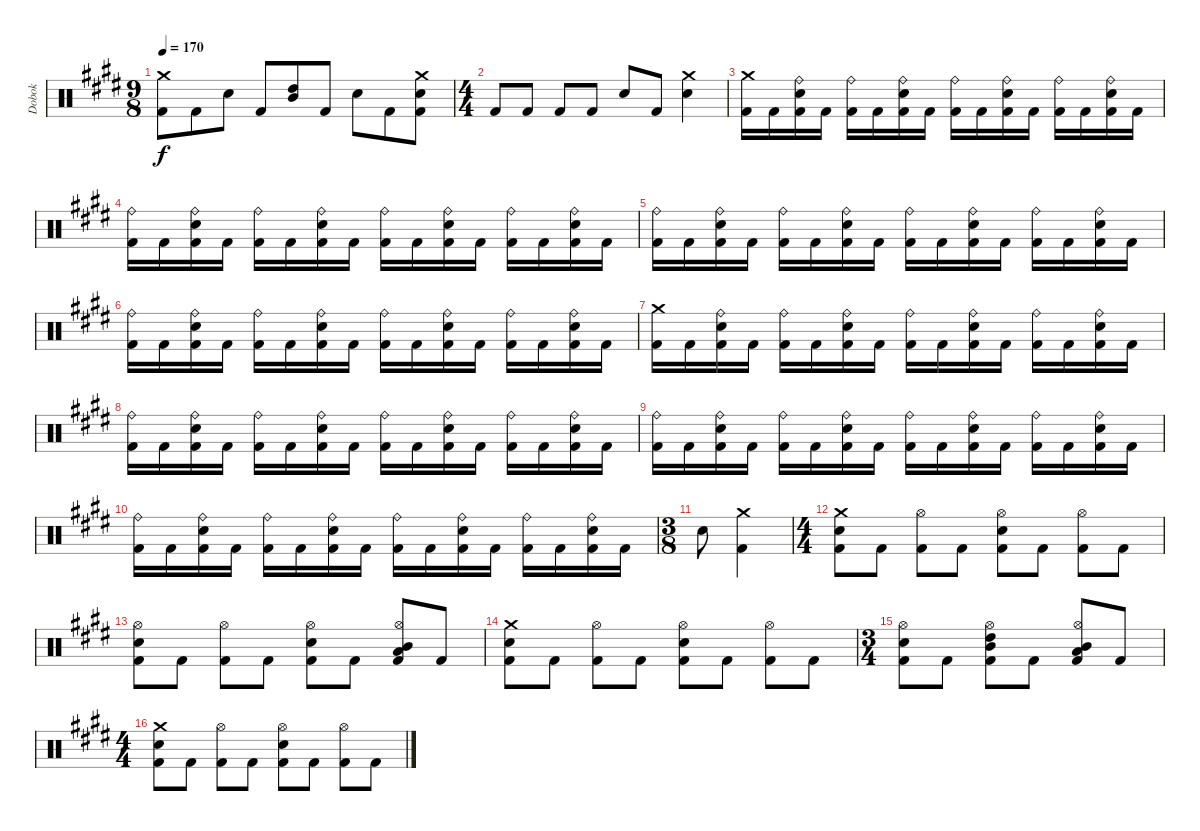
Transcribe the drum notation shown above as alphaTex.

\track ("Dobok" "Dobok") {instrument percussion}
\staff {score}
\articulation defaults
\ts (9 8)
\tempo 170
\clef neutral
\ks c#minor
("Crash medium (hit)" "Kick (hit) 2").8{dy f} "Kick (hit) 2".8 "Snare (hit) 2".8 "Kick (hit) 2".8 ("High Tom (hit)" "Mid Tom (hit)").8 "Kick (hit) 2".8 "Snare (hit) 2".8 "Kick (hit) 2".8 ("Crash medium (hit)" "Snare (hit) 2" "Kick (hit) 2").8 |
\ts (4 4)
"Kick (hit) 2".8 "Kick (hit) 2".8 "Kick (hit) 2".8 "Kick (hit) 2".8 "Snare (hit) 2".8 "Kick (hit) 2".8 ("Crash medium (hit)" "Snare (hit) 2").4 |
("Crash medium (hit)" "Kick (hit) 2").16 "Kick (hit) 2".16 ("Ride (bell)" "Snare (hit) 2" "Kick (hit) 2").16 "Kick (hit) 2".16 ("Ride (bell)" "Kick (hit) 2").16 "Kick (hit) 2".16 ("Ride (bell)" "Snare (hit) 2" "Kick (hit) 2").16 "Kick (hit) 2".16 ("Ride (bell)" "Kick (hit) 2").16 "Kick (hit) 2".16 ("Ride (bell)" "Snare (hit) 2" "Kick (hit) 2").16 "Kick (hit) 2".16 ("Ride (bell)" "Kick (hit) 2").16 "Kick (hit) 2".16 ("Ride (bell)" "Snare (hit) 2" "Kick (hit) 2").16 "Kick (hit) 2".16 |
("Ride (bell)" "Kick (hit) 2").16 "Kick (hit) 2".16 ("Ride (bell)" "Snare (hit) 2" "Kick (hit) 2").16 "Kick (hit) 2".16 ("Ride (bell)" "Kick (hit) 2").16 "Kick (hit) 2".16 ("Ride (bell)" "Snare (hit) 2" "Kick (hit) 2").16 "Kick (hit) 2".16 ("Ride (bell)" "Kick (hit) 2").16 "Kick (hit) 2".16 ("Ride (bell)" "Snare (hit) 2" "Kick (hit) 2").16 "Kick (hit) 2".16 ("Ride (bell)" "Kick (hit) 2").16 "Kick (hit) 2".16 ("Ride (bell)" "Snare (hit) 2" "Kick (hit) 2").16 "Kick (hit) 2".16 |
("Ride (bell)" "Kick (hit) 2").16 "Kick (hit) 2".16 ("Ride (bell)" "Snare (hit) 2" "Kick (hit) 2").16 "Kick (hit) 2".16 ("Ride (bell)" "Kick (hit) 2").16 "Kick (hit) 2".16 ("Ride (bell)" "Snare (hit) 2" "Kick (hit) 2").16 "Kick (hit) 2".16 ("Ride (bell)" "Kick (hit) 2").16 "Kick (hit) 2".16 ("Ride (bell)" "Snare (hit) 2" "Kick (hit) 2").16 "Kick (hit) 2".16 ("Ride (bell)" "Kick (hit) 2").16 "Kick (hit) 2".16 ("Ride (bell)" "Snare (hit) 2" "Kick (hit) 2").16 "Kick (hit) 2".16 |
("Ride (bell)" "Kick (hit) 2").16 "Kick (hit) 2".16 ("Ride (bell)" "Snare (hit) 2" "Kick (hit) 2").16 "Kick (hit) 2".16 ("Ride (bell)" "Kick (hit) 2").16 "Kick (hit) 2".16 ("Ride (bell)" "Snare (hit) 2" "Kick (hit) 2").16 "Kick (hit) 2".16 ("Ride (bell)" "Kick (hit) 2").16 "Kick (hit) 2".16 ("Ride (bell)" "Snare (hit) 2" "Kick (hit) 2").16 "Kick (hit) 2".16 ("Ride (bell)" "Kick (hit) 2").16 "Kick (hit) 2".16 ("Ride (bell)" "Snare (hit) 2" "Kick (hit) 2").16 "Kick (hit) 2".16 |
("Crash medium (hit)" "Kick (hit) 2").16 "Kick (hit) 2".16 ("Ride (bell)" "Snare (hit) 2" "Kick (hit) 2").16 "Kick (hit) 2".16 ("Ride (bell)" "Kick (hit) 2").16 "Kick (hit) 2".16 ("Ride (bell)" "Snare (hit) 2" "Kick (hit) 2").16 "Kick (hit) 2".16 ("Ride (bell)" "Kick (hit) 2").16 "Kick (hit) 2".16 ("Ride (bell)" "Snare (hit) 2" "Kick (hit) 2").16 "Kick (hit) 2".16 ("Ride (bell)" "Kick (hit) 2").16 "Kick (hit) 2".16 ("Ride (bell)" "Snare (hit) 2" "Kick (hit) 2").16 "Kick (hit) 2".16 |
("Ride (bell)" "Kick (hit) 2").16 "Kick (hit) 2".16 ("Ride (bell)" "Snare (hit) 2" "Kick (hit) 2").16 "Kick (hit) 2".16 ("Ride (bell)" "Kick (hit) 2").16 "Kick (hit) 2".16 ("Ride (bell)" "Snare (hit) 2" "Kick (hit) 2").16 "Kick (hit) 2".16 ("Ride (bell)" "Kick (hit) 2").16 "Kick (hit) 2".16 ("Ride (bell)" "Snare (hit) 2" "Kick (hit) 2").16 "Kick (hit) 2".16 ("Ride (bell)" "Kick (hit) 2").16 "Kick (hit) 2".16 ("Ride (bell)" "Snare (hit) 2" "Kick (hit) 2").16 "Kick (hit) 2".16 |
("Ride (bell)" "Kick (hit) 2").16 "Kick (hit) 2".16 ("Ride (bell)" "Snare (hit) 2" "Kick (hit) 2").16 "Kick (hit) 2".16 ("Ride (bell)" "Kick (hit) 2").16 "Kick (hit) 2".16 ("Ride (bell)" "Snare (hit) 2" "Kick (hit) 2").16 "Kick (hit) 2".16 ("Ride (bell)" "Kick (hit) 2").16 "Kick (hit) 2".16 ("Ride (bell)" "Snare (hit) 2" "Kick (hit) 2").16 "Kick (hit) 2".16 ("Ride (bell)" "Kick (hit) 2").16 "Kick (hit) 2".16 ("Ride (bell)" "Snare (hit) 2" "Kick (hit) 2").16 "Kick (hit) 2".16 |
("Ride (bell)" "Kick (hit) 2").16 "Kick (hit) 2".16 ("Ride (bell)" "Snare (hit) 2" "Kick (hit) 2").16 "Kick (hit) 2".16 ("Ride (bell)" "Kick (hit) 2").16 "Kick (hit) 2".16 ("Ride (bell)" "Snare (hit) 2" "Kick (hit) 2").16 "Kick (hit) 2".16 ("Ride (bell)" "Kick (hit) 2").16 "Kick (hit) 2".16 ("Ride (bell)" "Snare (hit) 2" "Kick (hit) 2").16 "Kick (hit) 2".16 ("Ride (bell)" "Kick (hit) 2").16 "Kick (hit) 2".16 ("Ride (bell)" "Snare (hit) 2" "Kick (hit) 2").16 "Kick (hit) 2".16 |
\ts (3 8)
"Snare (hit) 2".8 ("Crash medium (hit)" "Kick (hit) 2").4 |
\ts (4 4)
("Crash medium (hit)" "Snare (hit) 2" "Kick (hit) 2").8 "Kick (hit) 2".8 ("Hi-Hat (open)" "Kick (hit) 2").8 "Kick (hit) 2".8 ("Hi-Hat (open)" "Snare (hit) 2" "Kick (hit) 2").8 "Kick (hit) 2".8 ("Hi-Hat (open)" "Kick (hit) 2").8 "Kick (hit) 2".8 |
("Hi-Hat (open)" "Snare (hit) 2" "Kick (hit) 2").8 "Kick (hit) 2".8 ("Hi-Hat (open)" "Kick (hit) 2").8 "Kick (hit) 2".8 ("Hi-Hat (open)" "Snare (hit) 2" "Kick (hit) 2").8 "Kick (hit) 2".8 ("Hi-Hat (open)" "Low Tom (hit)" "Mid Tom (hit)" "Kick (hit) 2").8 "Kick (hit) 2".8 |
("Crash medium (hit)" "Snare (hit) 2" "Kick (hit) 2").8 "Kick (hit) 2".8 ("Hi-Hat (open)" "Kick (hit) 2").8 "Kick (hit) 2".8 ("Hi-Hat (open)" "Snare (hit) 2" "Kick (hit) 2").8 "Kick (hit) 2".8 ("Hi-Hat (open)" "Kick (hit) 2").8 "Kick (hit) 2".8 |
\ts (3 4)
("Hi-Hat (open)" "Snare (hit) 2" "Kick (hit) 2").8 "Kick (hit) 2".8 ("Hi-Hat (open)" "High Tom (hit)" "Mid Tom (hit)" "Kick (hit) 2").8 "Kick (hit) 2".8 ("Hi-Hat (open)" "Mid Tom (hit)" "Low Tom (hit)" "Kick (hit) 2").8 "Kick (hit) 2".8 |
\ts (4 4)
("Crash medium (hit)" "Snare (hit) 2" "Kick (hit) 2").8 "Kick (hit) 2".8 ("Hi-Hat (open)" "Kick (hit) 2").8 "Kick (hit) 2".8 ("Hi-Hat (open)" "Snare (hit) 2" "Kick (hit) 2").8 "Kick (hit) 2".8 ("Hi-Hat (open)" "Kick (hit) 2").8 "Kick (hit) 2".8
